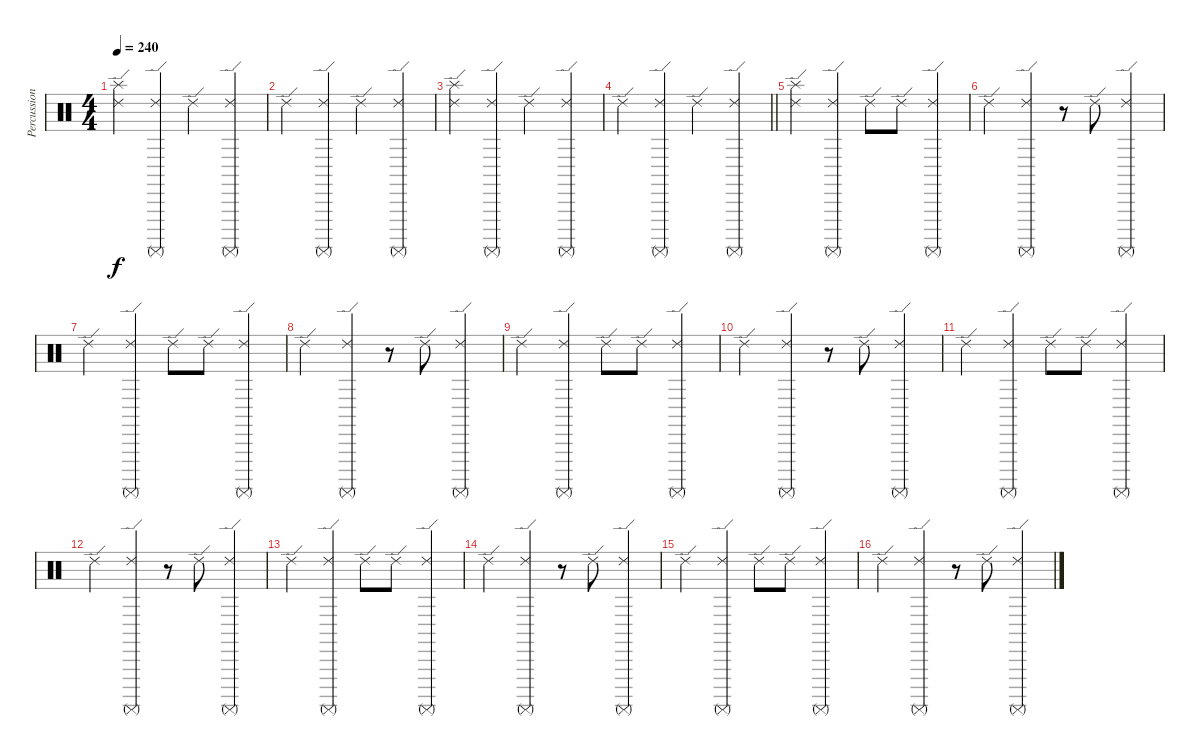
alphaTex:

\track ("Percussions" "Percussion") {instrument percussion}
\staff {score}
\articulation defaults
\ts (4 4)
\tempo 240
\clef neutral
\ks c
("Splash (hit)" "Ride (edge) 2").4{dy f} ("Ride (edge) 2" "Surdo (mute)").4 "Ride (edge) 2".4 ("Ride (edge) 2" "Surdo (mute)").4 |
"Ride (edge) 2".4 ("Ride (edge) 2" "Surdo (mute)").4 "Ride (edge) 2".4 ("Ride (edge) 2" "Surdo (mute)").4 |
("Splash (hit)" "Ride (edge) 2").4 ("Ride (edge) 2" "Surdo (mute)").4 "Ride (edge) 2".4 ("Ride (edge) 2" "Surdo (mute)").4 |
\barLineRight lightlight "Ride (edge) 2".4
("Ride (edge) 2" "Surdo (mute)").4 "Ride (edge) 2".4 ("Ride (edge) 2" "Surdo (mute)").4 |
\section ("" "")
("Splash (hit)" "Ride (edge) 2").4 ("Ride (edge) 2" "Surdo (mute)").4 "Ride (edge) 2".8 "Ride (edge) 2".8 ("Ride (edge) 2" "Surdo (mute)").4 |
"Ride (edge) 2".4 ("Ride (edge) 2" "Surdo (mute)").4 r.8 "Ride (edge) 2".8 ("Ride (edge) 2" "Surdo (mute)").4 |
"Ride (edge) 2".4 ("Ride (edge) 2" "Surdo (mute)").4 "Ride (edge) 2".8 "Ride (edge) 2".8 ("Ride (edge) 2" "Surdo (mute)").4 |
"Ride (edge) 2".4 ("Ride (edge) 2" "Surdo (mute)").4 r.8 "Ride (edge) 2".8 ("Ride (edge) 2" "Surdo (mute)").4 |
"Ride (edge) 2".4 ("Ride (edge) 2" "Surdo (mute)").4 "Ride (edge) 2".8 "Ride (edge) 2".8 ("Ride (edge) 2" "Surdo (mute)").4 |
"Ride (edge) 2".4 ("Ride (edge) 2" "Surdo (mute)").4 r.8 "Ride (edge) 2".8 ("Ride (edge) 2" "Surdo (mute)").4 |
"Ride (edge) 2".4 ("Ride (edge) 2" "Surdo (mute)").4 "Ride (edge) 2".8 "Ride (edge) 2".8 ("Ride (edge) 2" "Surdo (mute)").4 |
"Ride (edge) 2".4 ("Ride (edge) 2" "Surdo (mute)").4 r.8 "Ride (edge) 2".8 ("Ride (edge) 2" "Surdo (mute)").4 |
"Ride (edge) 2".4 ("Ride (edge) 2" "Surdo (mute)").4 "Ride (edge) 2".8 "Ride (edge) 2".8 ("Ride (edge) 2" "Surdo (mute)").4 |
"Ride (edge) 2".4 ("Ride (edge) 2" "Surdo (mute)").4 r.8 "Ride (edge) 2".8 ("Ride (edge) 2" "Surdo (mute)").4 |
"Ride (edge) 2".4 ("Ride (edge) 2" "Surdo (mute)").4 "Ride (edge) 2".8 "Ride (edge) 2".8 ("Ride (edge) 2" "Surdo (mute)").4 |
"Ride (edge) 2".4 ("Ride (edge) 2" "Surdo (mute)").4 r.8 "Ride (edge) 2".8 ("Ride (edge) 2" "Surdo (mute)").4
